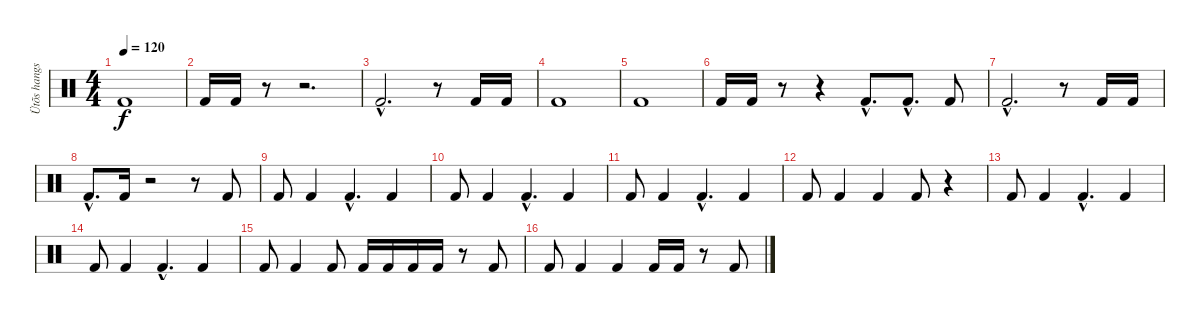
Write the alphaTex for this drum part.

\track ("Ütõs hangszer" "Ütõs hangs") {instrument percussion}
\staff {score}
\articulation defaults
\ts (4 4)
\tempo 120
\clef neutral
\ks c "Kick (hit) 2".1{dy f}
|
"Kick (hit) 2".16 "Kick (hit) 2".16 r.8 r.2{d} |
"Kick (hit) 2"{hac}.2{d} r.8 "Kick (hit) 2".16 "Kick (hit) 2".16 |
"Kick (hit) 2".1 |
"Kick (hit) 2".1 |
"Kick (hit) 2".16 "Kick (hit) 2".16 r.8 r.4 "Kick (hit) 2"{hac}.8{d} "Kick (hit) 2"{hac}.8{d} "Kick (hit) 2".8 |
"Kick (hit) 2"{hac}.2{d} r.8 "Kick (hit) 2".16 "Kick (hit) 2".16 |
"Kick (hit) 2"{hac}.8{d} "Kick (hit) 2".16 r.2 r.8 "Kick (hit) 2".8 |
"Kick (hit) 2".8 "Kick (hit) 2".4 "Kick (hit) 2"{hac}.4{d} "Kick (hit) 2".4 |
"Kick (hit) 2".8 "Kick (hit) 2".4 "Kick (hit) 2"{hac}.4{d} "Kick (hit) 2".4 |
"Kick (hit) 2".8 "Kick (hit) 2".4 "Kick (hit) 2"{hac}.4{d} "Kick (hit) 2".4 |
"Kick (hit) 2".8 "Kick (hit) 2".4 "Kick (hit) 2".4 "Kick (hit) 2".8 r.4 |
"Kick (hit) 2".8 "Kick (hit) 2".4 "Kick (hit) 2"{hac}.4{d} "Kick (hit) 2".4 |
"Kick (hit) 2".8 "Kick (hit) 2".4 "Kick (hit) 2"{hac}.4{d} "Kick (hit) 2".4 |
"Kick (hit) 2".8 "Kick (hit) 2".4 "Kick (hit) 2".8 "Kick (hit) 2".16 "Kick (hit) 2".16 "Kick (hit) 2".16 "Kick (hit) 2".16 r.8 "Kick (hit) 2".8 |
"Kick (hit) 2".8 "Kick (hit) 2".4 "Kick (hit) 2".4 "Kick (hit) 2".16 "Kick (hit) 2".16 r.8 "Kick (hit) 2".8
